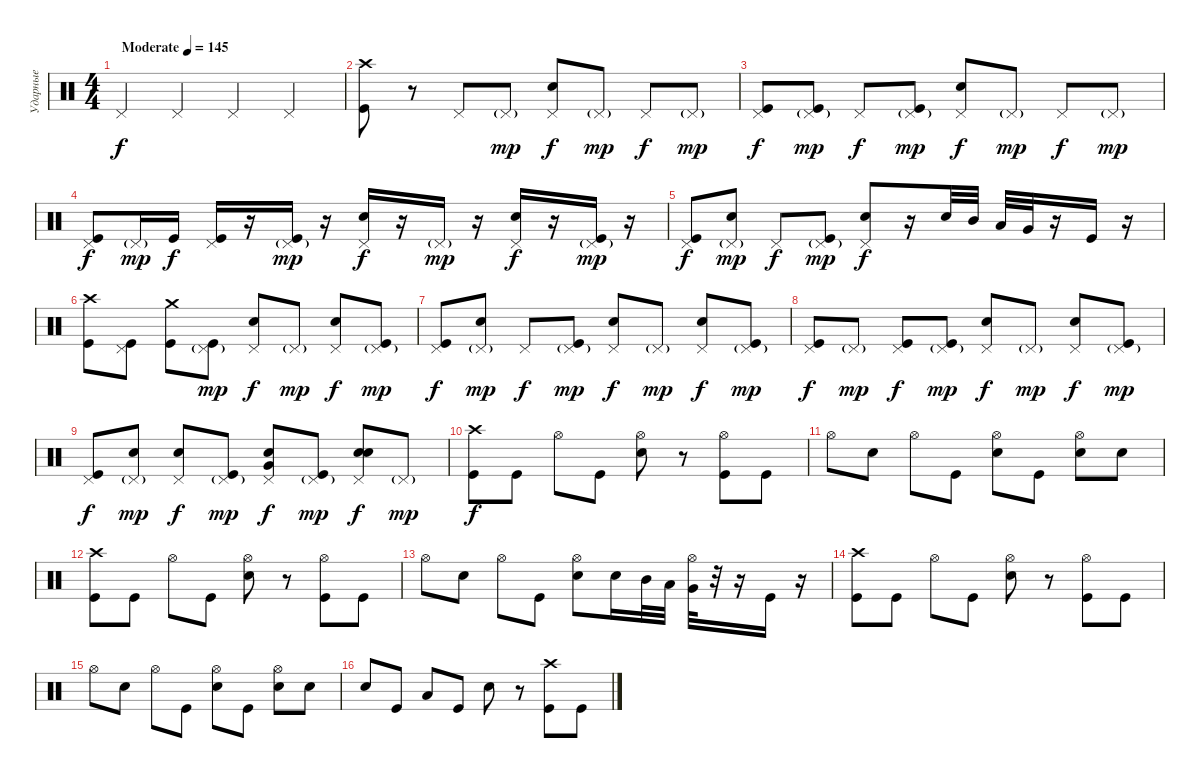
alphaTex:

\track ("Ударные" "Ударные") {instrument percussion}
\staff {score}
\articulation defaults
\ts (4 4)
\tempo (145 "Moderate")
\clef neutral
\ks c "Pedal Hi-Hat (hit)".4{dy f} "Pedal Hi-Hat (hit)".4 "Pedal Hi-Hat (hit)".4 "Pedal Hi-Hat (hit)".4
|
("Crash high (hit)" "Kick (hit)").8 r.8 "Pedal Hi-Hat (hit)".8 "Pedal Hi-Hat (hit)"{g}.8{dy mp} ("Pedal Hi-Hat (hit)" "Electric Snare (hit)").8{dy f} "Pedal Hi-Hat (hit)"{g}.8{dy mp} "Pedal Hi-Hat (hit)".8{dy f} "Pedal Hi-Hat (hit)"{g}.8{dy mp} |
("Pedal Hi-Hat (hit)" "Kick (hit)").8{dy f} ("Pedal Hi-Hat (hit)"{g} "Kick (hit)").8{dy mp} "Pedal Hi-Hat (hit)".8{dy f} ("Pedal Hi-Hat (hit)"{g} "Kick (hit)").8{dy mp} ("Pedal Hi-Hat (hit)" "Electric Snare (hit)").8{dy f} "Pedal Hi-Hat (hit)"{g}.8{dy mp} "Pedal Hi-Hat (hit)".8{dy f} "Pedal Hi-Hat (hit)"{g}.8{dy mp} |
("Pedal Hi-Hat (hit)" "Kick (hit)").8{dy f} "Pedal Hi-Hat (hit)"{g}.16{dy mp} "Kick (hit)".16{dy f} ("Pedal Hi-Hat (hit)" "Kick (hit)").16 r.16 ("Pedal Hi-Hat (hit)"{g} "Kick (hit)").16{dy mp} r.16 ("Pedal Hi-Hat (hit)" "Electric Snare (hit)").16{dy f} r.16 "Pedal Hi-Hat (hit)"{g}.16{dy mp} r.16 ("Pedal Hi-Hat (hit)" "Electric Snare (hit)").16{dy f} r.16 ("Pedal Hi-Hat (hit)"{g} "Kick (hit)").16{dy mp} r.16 |
("Pedal Hi-Hat (hit)" "Kick (hit)").8{dy f} ("Pedal Hi-Hat (hit)"{g} "Electric Snare (hit)").8{dy mp} "Pedal Hi-Hat (hit)".8{dy f} ("Pedal Hi-Hat (hit)"{g} "Kick (hit)").8{dy mp} ("Pedal Hi-Hat (hit)" "Electric Snare (hit)").8{dy f} r.16 "Electric Snare (hit)".32 "Mid Tom (hit)".32 "Low Tom (hit)".32 "Very Low Tom (hit)".32 r.16 "Kick (hit)".16 r.16 |
("Crash high (hit)" "Kick (hit)").8 ("Pedal Hi-Hat (hit)" "Kick (hit)").8 ("Crash medium (hit)" "Kick (hit)").8 ("Pedal Hi-Hat (hit)"{g} "Kick (hit)").8{dy mp} ("Pedal Hi-Hat (hit)" "Electric Snare (hit)").8{dy f} "Pedal Hi-Hat (hit)"{g}.8{dy mp} ("Pedal Hi-Hat (hit)" "Electric Snare (hit)").8{dy f} ("Pedal Hi-Hat (hit)"{g} "Kick (hit)").8{dy mp} |
("Pedal Hi-Hat (hit)" "Kick (hit)").8{dy f} ("Pedal Hi-Hat (hit)"{g} "Electric Snare (hit)").8{dy mp} "Pedal Hi-Hat (hit)".8{dy f} ("Pedal Hi-Hat (hit)"{g} "Kick (hit)").8{dy mp} ("Pedal Hi-Hat (hit)" "Electric Snare (hit)").8{dy f} "Pedal Hi-Hat (hit)"{g}.8{dy mp} ("Pedal Hi-Hat (hit)" "Electric Snare (hit)").8{dy f} ("Pedal Hi-Hat (hit)"{g} "Kick (hit)").8{dy mp} |
("Pedal Hi-Hat (hit)" "Kick (hit)").8{dy f} "Pedal Hi-Hat (hit)"{g}.8{dy mp} ("Pedal Hi-Hat (hit)" "Kick (hit)").8{dy f} ("Pedal Hi-Hat (hit)"{g} "Kick (hit)").8{dy mp} ("Pedal Hi-Hat (hit)" "Electric Snare (hit)").8{dy f} "Pedal Hi-Hat (hit)"{g}.8{dy mp} ("Pedal Hi-Hat (hit)" "Electric Snare (hit)").8{dy f} ("Pedal Hi-Hat (hit)"{g} "Kick (hit)").8{dy mp} |
("Pedal Hi-Hat (hit)" "Kick (hit)").8{dy f} ("Pedal Hi-Hat (hit)"{g} "Electric Snare (hit)").8{dy mp} ("Pedal Hi-Hat (hit)" "Electric Snare (hit)").8{dy f} ("Pedal Hi-Hat (hit)"{g} "Kick (hit)").8{dy mp} ("Pedal Hi-Hat (hit)" "Very Low Tom (hit)" "Electric Snare (hit)").8{dy f} ("Pedal Hi-Hat (hit)"{g} "Kick (hit)").8{dy mp} ("Pedal Hi-Hat (hit)" "Electric Snare (hit)" "Electric Snare (hit)").8{dy f} "Pedal Hi-Hat (hit)"{g}.8{dy mp} |
("Crash high (hit)" "Kick (hit)").8{dy f} "Kick (hit)".8 "Hi-Hat (open)".8 "Kick (hit)".8 ("Hi-Hat (open)" "Electric Snare (hit)").8 r.8 ("Hi-Hat (open)" "Kick (hit)").8 "Kick (hit)".8 |
"Hi-Hat (open)".8 "Electric Snare (hit)".8 "Hi-Hat (open)".8 "Kick (hit)".8 ("Hi-Hat (open)" "Electric Snare (hit)").8 "Kick (hit)".8 ("Hi-Hat (open)" "Electric Snare (hit)").8 "Electric Snare (hit)".8 |
("Crash high (hit)" "Kick (hit)").8 "Kick (hit)".8 "Hi-Hat (open)".8 "Kick (hit)".8 ("Hi-Hat (open)" "Electric Snare (hit)").8 r.8 ("Hi-Hat (open)" "Kick (hit)").8 "Kick (hit)".8 |
"Hi-Hat (open)".8 "Electric Snare (hit)".8 "Hi-Hat (open)".8 "Kick (hit)".8 ("Hi-Hat (open)" "Electric Snare (hit)").8 "Electric Snare (hit)".16 "Mid Tom (hit)".32 "Low Tom (hit)".32 ("Hi-Hat (open)" "Very Low Tom (hit)").32 r.32 r.16 "Kick (hit)".16 r.16 |
("Crash high (hit)" "Kick (hit)").8 "Kick (hit)".8 "Hi-Hat (open)".8 "Kick (hit)".8 ("Hi-Hat (open)" "Electric Snare (hit)").8 r.8 ("Hi-Hat (open)" "Kick (hit)").8 "Kick (hit)".8 |
"Hi-Hat (open)".8 "Electric Snare (hit)".8 "Hi-Hat (open)".8 "Kick (hit)".8 ("Hi-Hat (open)" "Electric Snare (hit)").8 "Kick (hit)".8 ("Hi-Hat (open)" "Electric Snare (hit)").8 "Electric Snare (hit)".8 |
"Electric Snare (hit)".8 "Kick (hit)".8 "Low Tom (hit)".8 "Kick (hit)".8 "Electric Snare (hit)".8 r.8 ("Crash high (hit)" "Kick (hit)").8 "Kick (hit)".8
